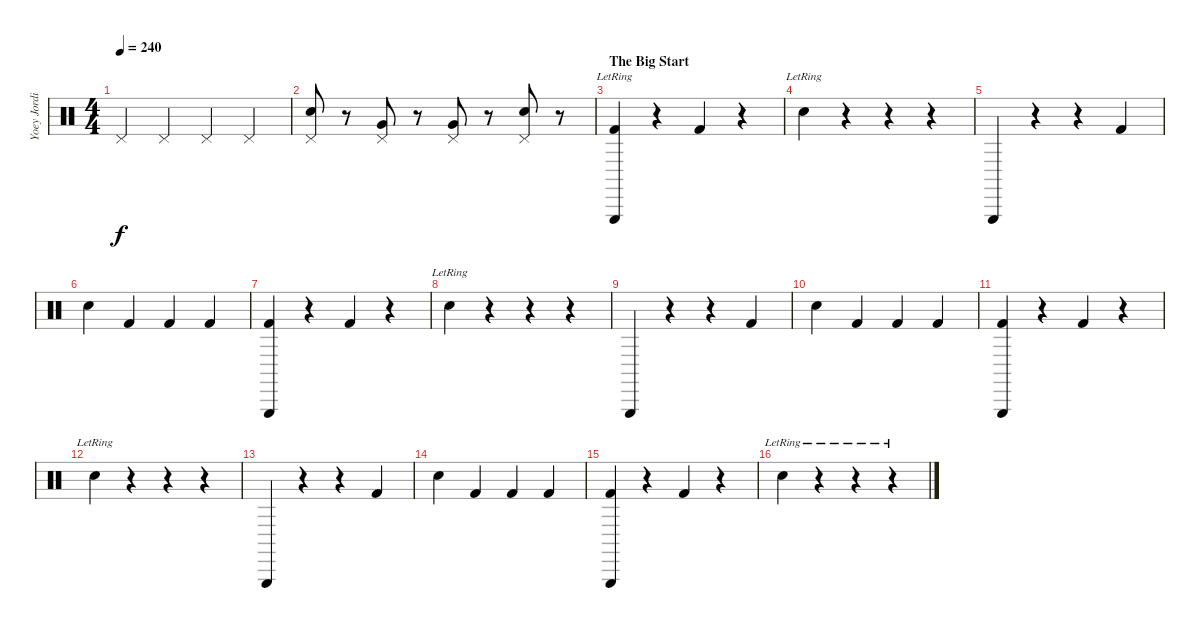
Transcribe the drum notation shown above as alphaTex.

\track ("Yoey Jordison" "Yoey Jordi") {instrument percussion}
\staff {score}
\articulation defaults
\ts (4 4)
\tempo 240
\clef neutral
\ks c "Pedal Hi-Hat (hit)".4{dy f} "Pedal Hi-Hat (hit)".4 "Pedal Hi-Hat (hit)".4 "Pedal Hi-Hat (hit)".4
|
("Snare (hit) 2" "Pedal Hi-Hat (hit)").8 r.8 ("Very Low Tom (hit)" "Pedal Hi-Hat (hit)").8 r.8 ("Very Low Tom (hit)" "Pedal Hi-Hat (hit)").8 r.8 ("Snare (hit) 2" "Pedal Hi-Hat (hit)").8 r.8 |
\section ("" "The Big Start")
("Triangle (hit)" "Kick (hit) 2"{lr}).4 r.4 "Kick (hit) 2".4 r.4 |
"Snare (hit) 2"{lr}.4 r.4 r.4 r.4 |
"Triangle (hit)".4 r.4 r.4 "Kick (hit) 2".4 |
"Snare (hit) 2".4 "Kick (hit) 2".4 "Kick (hit) 2".4 "Kick (hit) 2".4 |
("Triangle (hit)" "Kick (hit) 2").4 r.4 "Kick (hit) 2".4 r.4 |
"Snare (hit) 2"{lr}.4 r.4 r.4 r.4 |
"Triangle (hit)".4 r.4 r.4 "Kick (hit) 2".4 |
"Snare (hit) 2".4 "Kick (hit) 2".4 "Kick (hit) 2".4 "Kick (hit) 2".4 |
("Triangle (hit)" "Kick (hit) 2").4 r.4 "Kick (hit) 2".4 r.4 |
"Snare (hit) 2"{lr}.4 r.4 r.4 r.4 |
"Triangle (hit)".4 r.4 r.4 "Kick (hit) 2".4 |
"Snare (hit) 2".4 "Kick (hit) 2".4 "Kick (hit) 2".4 "Kick (hit) 2".4 |
("Triangle (hit)" "Kick (hit) 2").4 r.4 "Kick (hit) 2".4 r.4 |
"Snare (hit) 2"{lr}.4 r.4 r.4 r.4
